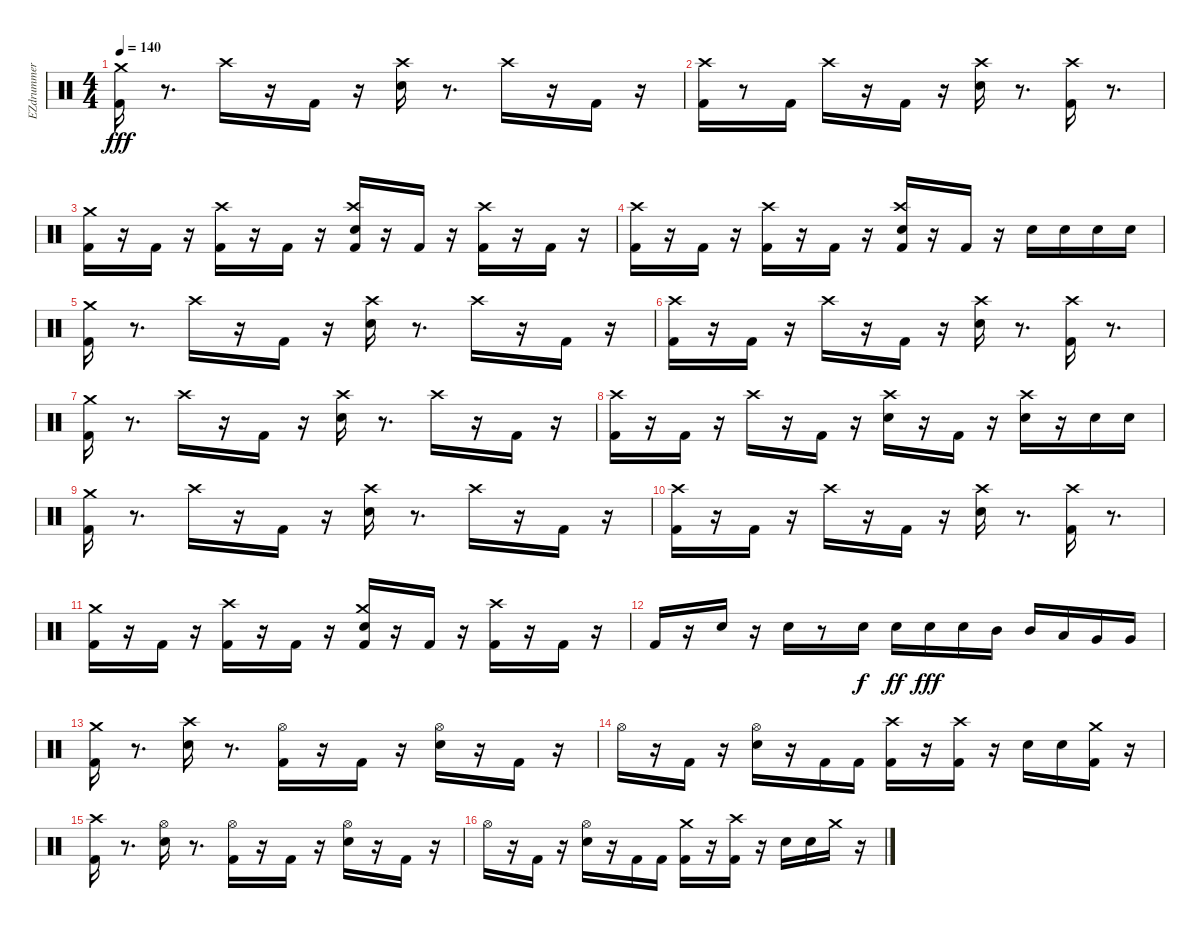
\track ("EZdrummer" "EZdrummer") {instrument percussion}
\staff {score}
\articulation defaults
\ts (4 4)
\tempo 140
\clef neutral
\ks c
("Kick (hit) 2" "Crash medium (hit)").16{dy fff} r.8{d} "Crash high (hit)".16 r.16 "Kick (hit) 2".16 r.16 ("Snare (hit) 2" "Crash high (hit)").16 r.8{d} "Crash high (hit)".16 r.16 "Kick (hit) 2".16 r.16 |
("Kick (hit) 2" "Crash high (hit)").16 r.8 "Kick (hit) 2".16 "Crash high (hit)".16 r.16 "Kick (hit) 2".16 r.16 ("Snare (hit) 2" "Crash high (hit)").16 r.8{d} ("Kick (hit) 2" "Crash high (hit)").16 r.8{d} |
("Kick (hit) 2" "Crash medium (hit)").16 r.16 "Kick (hit) 2".16 r.16 ("Kick (hit) 2" "Crash high (hit)").16 r.16 "Kick (hit) 2".16 r.16 ("Kick (hit) 2" "Snare (hit) 2" "Crash high (hit)").16 r.16 "Kick (hit) 2".16 r.16 ("Kick (hit) 2" "Crash high (hit)").16 r.16 "Kick (hit) 2".16 r.16 |
("Kick (hit) 2" "Crash high (hit)").16 r.16 "Kick (hit) 2".16 r.16 ("Kick (hit) 2" "Crash high (hit)").16 r.16 "Kick (hit) 2".16 r.16 ("Kick (hit) 2" "Snare (hit) 2" "Crash high (hit)").16 r.16 "Kick (hit) 2".16 r.16 "Snare (hit) 2".16 "Snare (hit) 2".16 "Snare (hit) 2".16 "Snare (hit) 2".16 |
("Kick (hit) 2" "Crash medium (hit)").16 r.8{d} "Crash high (hit)".16 r.16 "Kick (hit) 2".16 r.16 ("Snare (hit) 2" "Crash high (hit)").16 r.8{d} "Crash high (hit)".16 r.16 "Kick (hit) 2".16 r.16 |
("Kick (hit) 2" "Crash high (hit)").16 r.16 "Kick (hit) 2".16 r.16 "Crash high (hit)".16 r.16 "Kick (hit) 2".16 r.16 ("Snare (hit) 2" "Crash high (hit)").16 r.8{d} ("Kick (hit) 2" "Crash high (hit)").16 r.8{d} |
("Kick (hit) 2" "Crash medium (hit)").16 r.8{d} "Crash high (hit)".16 r.16 "Kick (hit) 2".16 r.16 ("Snare (hit) 2" "Crash high (hit)").16 r.8{d} "Crash high (hit)".16 r.16 "Kick (hit) 2".16 r.16 |
("Kick (hit) 2" "Crash high (hit)").16 r.16 "Kick (hit) 2".16 r.16 "Crash high (hit)".16 r.16 "Kick (hit) 2".16 r.16 ("Snare (hit) 2" "Crash high (hit)").16 r.16 "Kick (hit) 2".16 r.16 ("Snare (hit) 2" "Crash high (hit)").16 r.16 "Snare (hit) 2".16 "Snare (hit) 2".16 |
("Kick (hit) 2" "Crash medium (hit)").16 r.8{d} "Crash high (hit)".16 r.16 "Kick (hit) 2".16 r.16 ("Snare (hit) 2" "Crash high (hit)").16 r.8{d} "Crash high (hit)".16 r.16 "Kick (hit) 2".16 r.16 |
("Kick (hit) 2" "Crash high (hit)").16 r.16 "Kick (hit) 2".16 r.16 "Crash high (hit)".16 r.16 "Kick (hit) 2".16 r.16 ("Snare (hit) 2" "Crash high (hit)").16 r.8{d} ("Kick (hit) 2" "Crash high (hit)").16 r.8{d} |
("Kick (hit) 2" "Crash medium (hit)").16 r.16 "Kick (hit) 2".16 r.16 ("Crash high (hit)" "Kick (hit) 2").16 r.16 "Kick (hit) 2".16 r.16 ("Kick (hit) 2" "Snare (hit) 2" "Crash medium (hit)").16 r.16 "Kick (hit) 2".16 r.16 ("Crash high (hit)" "Kick (hit) 2").16 r.16 "Kick (hit) 2".16 r.16 |
"Kick (hit) 2".16 r.16 "Snare (hit) 2".16 r.16 "Snare (hit) 2".16 r.8 "Snare (hit) 2".16{dy f} "Snare (hit) 2".16{dy ff} "Snare (hit) 2".16{dy fff} "Snare (hit) 2".16 "Mid Tom (hit)".16 "Mid Tom (hit)".16 "Low Tom (hit)".16 "Very Low Tom (hit)".16 "Very Low Tom (hit)".16 |
("Kick (hit) 2" "Crash medium (hit)").16 r.8{d} ("Snare (hit) 2" "Crash high (hit)").16 r.8{d} ("Hi-Hat (open)" "Kick (hit) 2").16 r.16 "Kick (hit) 2".16 r.16 ("Hi-Hat (open)" "Snare (hit) 2").16 r.16 "Kick (hit) 2".16 r.16 |
"Hi-Hat (open)".16 r.16 "Kick (hit) 2".16 r.16 ("Hi-Hat (open)" "Snare (hit) 2").16 r.16 "Kick (hit) 2".16 "Kick (hit) 2".16 ("Crash high (hit)" "Kick (hit) 2").16 r.16 ("Crash high (hit)" "Kick (hit) 2").16 r.16 "Snare (hit) 2".16 "Snare (hit) 2".16 ("Crash medium (hit)" "Kick (hit) 2").16 r.16 |
("Kick (hit) 2" "Crash high (hit)").16 r.8{d} ("Hi-Hat (open)" "Snare (hit) 2").16 r.8{d} ("Hi-Hat (open)" "Kick (hit) 2").16 r.16 "Kick (hit) 2".16 r.16 ("Hi-Hat (open)" "Snare (hit) 2").16 r.16 "Kick (hit) 2".16 r.16 |
"Hi-Hat (open)".16 r.16 "Kick (hit) 2".16 r.16 ("Hi-Hat (open)" "Snare (hit) 2").16 r.16 "Kick (hit) 2".16 "Kick (hit) 2".16 ("Kick (hit) 2" "Crash medium (hit)").16 r.16 ("Kick (hit) 2" "Crash high (hit)").16 r.16 "Snare (hit) 2".16 "Snare (hit) 2".16 "Crash medium (hit)".16 r.16
